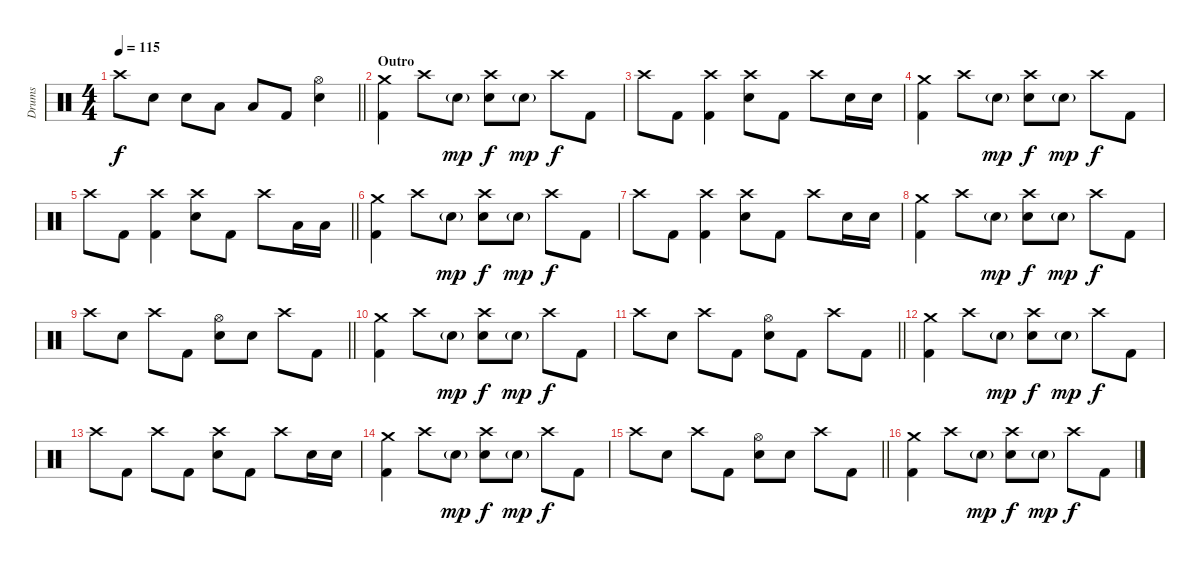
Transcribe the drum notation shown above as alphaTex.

\track ("Drums " "Drums ") {instrument percussion}
\staff {score}
\articulation defaults
\ts (4 4)
\tempo 115
\clef neutral
\barLineRight lightlight
\ks c "Crash high (hit)".8{dy f} "Electric Snare (hit)".8 "Electric Snare (hit)".8 "Low Tom (hit)".8 "Low Floor Tom (hit)".8 "Kick (hit) 2".8
("Hi-Hat (open)" "Electric Snare (hit)").4 |
\section ("" "Outro")
("Crash medium (hit)" "Kick (hit) 2").4 "Crash high (hit)".8 "Electric Snare (hit)"{g}.8{dy mp} ("Crash high (hit)" "Electric Snare (hit)").8{dy f} "Electric Snare (hit)"{g}.8{dy mp} "Crash high (hit)".8{dy f} "Kick (hit) 2".8 |
"Crash high (hit)".8 "Kick (hit) 2".8 ("Crash high (hit)" "Kick (hit) 2").4 ("Crash high (hit)" "Electric Snare (hit)").8 "Kick (hit) 2".8 "Crash high (hit)".8 "Electric Snare (hit)".16 "Electric Snare (hit)".16 |
("Crash medium (hit)" "Kick (hit) 2").4 "Crash high (hit)".8 "Electric Snare (hit)"{g}.8{dy mp} ("Crash high (hit)" "Electric Snare (hit)").8{dy f} "Electric Snare (hit)"{g}.8{dy mp} "Crash high (hit)".8{dy f} "Kick (hit) 2".8 |
\barLineRight lightlight "Crash high (hit)".8 "Kick (hit) 2".8
("Crash high (hit)" "Kick (hit) 2").4 ("Crash high (hit)" "Electric Snare (hit)").8 "Kick (hit) 2".8 "Crash high (hit)".8 "Low Tom (hit)".16 "Low Tom (hit)".16 |
("Crash medium (hit)" "Kick (hit) 2").4 "Crash high (hit)".8 "Electric Snare (hit)"{g}.8{dy mp} ("Crash high (hit)" "Electric Snare (hit)").8{dy f} "Electric Snare (hit)"{g}.8{dy mp} "Crash high (hit)".8{dy f} "Kick (hit) 2".8 |
"Crash high (hit)".8 "Kick (hit) 2".8 ("Crash high (hit)" "Kick (hit) 2").4 ("Crash high (hit)" "Electric Snare (hit)").8 "Kick (hit) 2".8 "Crash high (hit)".8 "Electric Snare (hit)".16 "Electric Snare (hit)".16 |
("Crash medium (hit)" "Kick (hit) 2").4 "Crash high (hit)".8 "Electric Snare (hit)"{g}.8{dy mp} ("Crash high (hit)" "Electric Snare (hit)").8{dy f} "Electric Snare (hit)"{g}.8{dy mp} "Crash high (hit)".8{dy f} "Kick (hit) 2".8 |
\barLineRight lightlight "Crash high (hit)".8 "Electric Snare (hit)".8 "Crash high (hit)".8 "Kick (hit) 2".8
("Hi-Hat (open)" "Electric Snare (hit)").8 "Electric Snare (hit)".8 "Crash high (hit)".8 "Kick (hit) 2".8 |
("Crash medium (hit)" "Kick (hit) 2").4 "Crash high (hit)".8 "Electric Snare (hit)"{g}.8{dy mp} ("Crash high (hit)" "Electric Snare (hit)").8{dy f} "Electric Snare (hit)"{g}.8{dy mp} "Crash high (hit)".8{dy f} "Kick (hit) 2".8 |
\barLineRight lightlight "Crash high (hit)".8 "Electric Snare (hit)".8 "Crash high (hit)".8 "Kick (hit) 2".8
("Hi-Hat (open)" "Electric Snare (hit)").8 "Kick (hit) 2".8 "Crash high (hit)".8 "Kick (hit) 2".8 |
("Crash medium (hit)" "Kick (hit) 2").4 "Crash high (hit)".8 "Electric Snare (hit)"{g}.8{dy mp} ("Crash high (hit)" "Electric Snare (hit)").8{dy f} "Electric Snare (hit)"{g}.8{dy mp} "Crash high (hit)".8{dy f} "Kick (hit) 2".8 |
"Crash high (hit)".8 "Kick (hit) 2".8 "Crash high (hit)".8 "Kick (hit) 2".8 ("Crash high (hit)" "Electric Snare (hit)").8 "Kick (hit) 2".8 "Crash high (hit)".8 "Electric Snare (hit)".16 "Electric Snare (hit)".16 |
("Crash medium (hit)" "Kick (hit) 2").4 "Crash high (hit)".8 "Electric Snare (hit)"{g}.8{dy mp} ("Crash high (hit)" "Electric Snare (hit)").8{dy f} "Electric Snare (hit)"{g}.8{dy mp} "Crash high (hit)".8{dy f} "Kick (hit) 2".8 |
\barLineRight lightlight "Crash high (hit)".8 "Electric Snare (hit)".8 "Crash high (hit)".8 "Kick (hit) 2".8
("Hi-Hat (open)" "Electric Snare (hit)").8 "Electric Snare (hit)".8 "Crash high (hit)".8 "Kick (hit) 2".8 |
("Crash medium (hit)" "Kick (hit) 2").4 "Crash high (hit)".8 "Electric Snare (hit)"{g}.8{dy mp} ("Crash high (hit)" "Electric Snare (hit)").8{dy f} "Electric Snare (hit)"{g}.8{dy mp} "Crash high (hit)".8{dy f} "Kick (hit) 2".8
